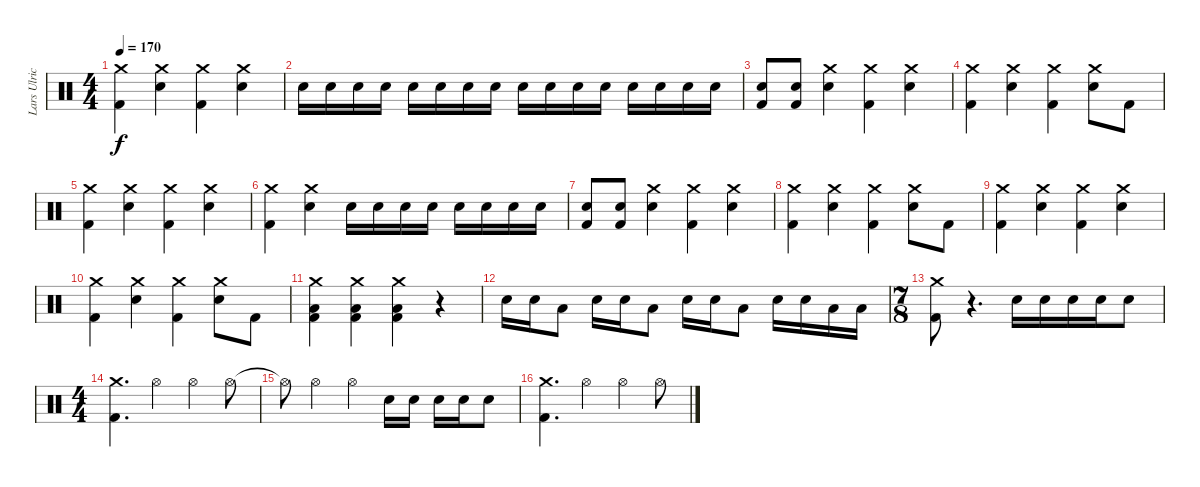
\track ("Lars Ulrich" "Lars Ulric") {instrument percussion}
\staff {score}
\articulation defaults
\ts (4 4)
\tempo 170
\clef neutral
\ks c
("Crash medium (hit)" "Kick (hit) 2").4{dy f} ("Crash medium (hit)" "Electric Snare (hit)").4 ("Crash medium (hit)" "Kick (hit) 2").4 ("Crash medium (hit)" "Electric Snare (hit)").4 |
"Electric Snare (hit)".16 "Electric Snare (hit)".16 "Electric Snare (hit)".16 "Electric Snare (hit)".16 "Electric Snare (hit)".16 "Electric Snare (hit)".16 "Electric Snare (hit)".16 "Electric Snare (hit)".16 "Electric Snare (hit)".16 "Electric Snare (hit)".16 "Electric Snare (hit)".16 "Electric Snare (hit)".16 "Electric Snare (hit)".16 "Electric Snare (hit)".16 "Electric Snare (hit)".16 "Electric Snare (hit)".16 |
("Electric Snare (hit)" "Kick (hit) 2").8 ("Electric Snare (hit)" "Kick (hit) 2").8 ("Crash medium (hit)" "Electric Snare (hit)").4 ("Crash medium (hit)" "Kick (hit) 2").4 ("Crash medium (hit)" "Electric Snare (hit)").4 |
("Crash medium (hit)" "Kick (hit) 2").4 ("Crash medium (hit)" "Electric Snare (hit)").4 ("Crash medium (hit)" "Kick (hit) 2").4 ("Crash medium (hit)" "Electric Snare (hit)").8 "Kick (hit) 2".8 |
("Crash medium (hit)" "Kick (hit) 2").4 ("Crash medium (hit)" "Electric Snare (hit)").4 ("Crash medium (hit)" "Kick (hit) 2").4 ("Crash medium (hit)" "Electric Snare (hit)").4 |
("Crash medium (hit)" "Kick (hit) 2").4 ("Crash medium (hit)" "Electric Snare (hit)").4 "Electric Snare (hit)".16 "Electric Snare (hit)".16 "Electric Snare (hit)".16 "Electric Snare (hit)".16 "Electric Snare (hit)".16 "Electric Snare (hit)".16 "Electric Snare (hit)".16 "Electric Snare (hit)".16 |
("Electric Snare (hit)" "Kick (hit) 2").8 ("Electric Snare (hit)" "Kick (hit) 2").8 ("Crash medium (hit)" "Electric Snare (hit)").4 ("Crash medium (hit)" "Kick (hit) 2").4 ("Crash medium (hit)" "Electric Snare (hit)").4 |
("Crash medium (hit)" "Kick (hit) 2").4 ("Crash medium (hit)" "Electric Snare (hit)").4 ("Crash medium (hit)" "Kick (hit) 2").4 ("Crash medium (hit)" "Electric Snare (hit)").8 "Kick (hit) 2".8 |
("Crash medium (hit)" "Kick (hit) 2").4 ("Crash medium (hit)" "Electric Snare (hit)").4 ("Crash medium (hit)" "Kick (hit) 2").4 ("Crash medium (hit)" "Electric Snare (hit)").4 |
("Crash medium (hit)" "Kick (hit) 2").4 ("Crash medium (hit)" "Electric Snare (hit)").4 ("Crash medium (hit)" "Kick (hit) 2").4 ("Crash medium (hit)" "Electric Snare (hit)").8 "Kick (hit) 2".8 |
("Crash medium (hit)" "Low Floor Tom (hit)" "Kick (hit) 2").4 ("Crash medium (hit)" "Low Floor Tom (hit)" "Kick (hit) 2").4 ("Crash medium (hit)" "Low Floor Tom (hit)" "Kick (hit) 2").4 r.4 |
"Electric Snare (hit)".16 "Electric Snare (hit)".16 "Low Floor Tom (hit)".8 "Electric Snare (hit)".16 "Electric Snare (hit)".16 "Low Floor Tom (hit)".8 "Electric Snare (hit)".16 "Electric Snare (hit)".16 "Low Floor Tom (hit)".8 "Electric Snare (hit)".16 "Electric Snare (hit)".16 "Low Floor Tom (hit)".16 "Low Floor Tom (hit)".16 |
\ts (7 8)
("Crash medium (hit)" "Kick (hit) 2").8 r.4{d} "Electric Snare (hit)".16 "Electric Snare (hit)".16 "Electric Snare (hit)".16 "Electric Snare (hit)".16 "Electric Snare (hit)".8 |
\ts (4 4)
("Crash medium (hit)" "Kick (hit) 2").4{d} "Hi-Hat (open)".4 "Hi-Hat (open)".4 "Hi-Hat (open)".8 |
"Hi-Hat (open)"{t}.8 "Hi-Hat (open)".4 "Hi-Hat (open)".4 "Electric Snare (hit)".16 "Electric Snare (hit)".16 "Electric Snare (hit)".16 "Electric Snare (hit)".16 "Electric Snare (hit)".8 |
("Crash medium (hit)" "Kick (hit) 2").4{d} "Hi-Hat (open)".4 "Hi-Hat (open)".4 "Hi-Hat (open)".8
